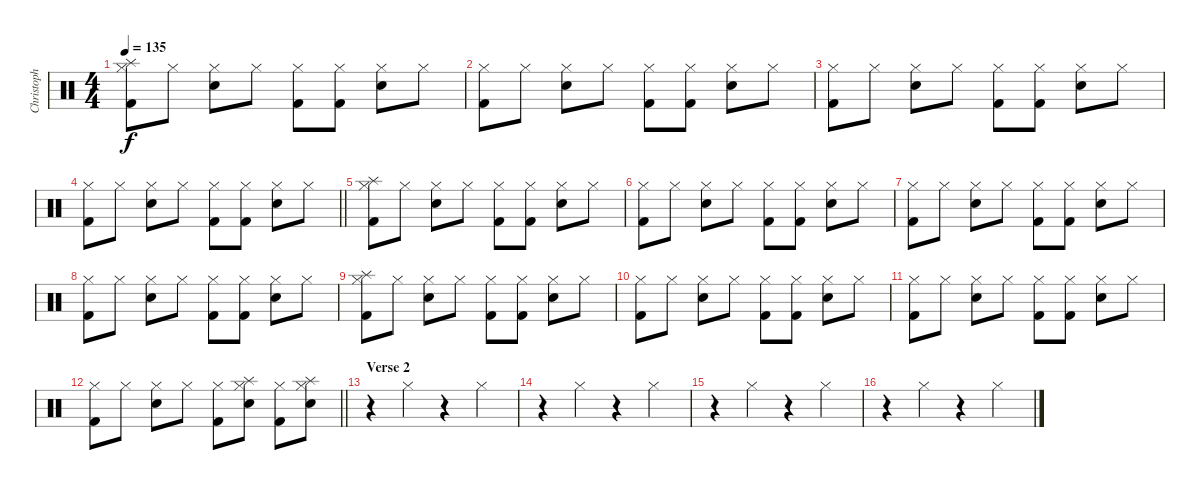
\track ("Christoph Schneider" "Christoph ") {instrument percussion}
\staff {score}
\articulation defaults
\ts (4 4)
\tempo 135
\clef neutral
\ks c
("Splash (hit)" "Hi-Hat (closed)" "Kick (hit) 2").8{dy f} "Hi-Hat (closed)".8 ("Hi-Hat (closed)" "Electric Snare (hit)").8 "Hi-Hat (closed)".8 ("Hi-Hat (closed)" "Kick (hit) 2").8 ("Hi-Hat (closed)" "Kick (hit) 2").8 ("Hi-Hat (closed)" "Electric Snare (hit)").8 "Hi-Hat (closed)".8 |
("Hi-Hat (closed)" "Kick (hit) 2").8 "Hi-Hat (closed)".8 ("Hi-Hat (closed)" "Electric Snare (hit)").8 "Hi-Hat (closed)".8 ("Hi-Hat (closed)" "Kick (hit) 2").8 ("Hi-Hat (closed)" "Kick (hit) 2").8 ("Hi-Hat (closed)" "Electric Snare (hit)").8 "Hi-Hat (closed)".8 |
("Hi-Hat (closed)" "Kick (hit) 2").8 "Hi-Hat (closed)".8 ("Hi-Hat (closed)" "Electric Snare (hit)").8 "Hi-Hat (closed)".8 ("Hi-Hat (closed)" "Kick (hit) 2").8 ("Hi-Hat (closed)" "Kick (hit) 2").8 ("Hi-Hat (closed)" "Electric Snare (hit)").8 "Hi-Hat (closed)".8 |
\barLineRight lightlight
("Hi-Hat (closed)" "Kick (hit) 2").8 "Hi-Hat (closed)".8 ("Hi-Hat (closed)" "Electric Snare (hit)").8 "Hi-Hat (closed)".8 ("Hi-Hat (closed)" "Kick (hit) 2").8 ("Hi-Hat (closed)" "Kick (hit) 2").8 ("Hi-Hat (closed)" "Electric Snare (hit)").8 "Hi-Hat (closed)".8 |
("Splash (hit)" "Hi-Hat (closed)" "Kick (hit) 2").8 "Hi-Hat (closed)".8 ("Hi-Hat (closed)" "Electric Snare (hit)").8 "Hi-Hat (closed)".8 ("Hi-Hat (closed)" "Kick (hit) 2").8 ("Hi-Hat (closed)" "Kick (hit) 2").8 ("Hi-Hat (closed)" "Electric Snare (hit)").8 "Hi-Hat (closed)".8 |
("Hi-Hat (closed)" "Kick (hit) 2").8 "Hi-Hat (closed)".8 ("Hi-Hat (closed)" "Electric Snare (hit)").8 "Hi-Hat (closed)".8 ("Hi-Hat (closed)" "Kick (hit) 2").8 ("Hi-Hat (closed)" "Kick (hit) 2").8 ("Hi-Hat (closed)" "Electric Snare (hit)").8 "Hi-Hat (closed)".8 |
("Hi-Hat (closed)" "Kick (hit) 2").8 "Hi-Hat (closed)".8 ("Hi-Hat (closed)" "Electric Snare (hit)").8 "Hi-Hat (closed)".8 ("Hi-Hat (closed)" "Kick (hit) 2").8 ("Hi-Hat (closed)" "Kick (hit) 2").8 ("Hi-Hat (closed)" "Electric Snare (hit)").8 "Hi-Hat (closed)".8 |
("Hi-Hat (closed)" "Kick (hit) 2").8 "Hi-Hat (closed)".8 ("Hi-Hat (closed)" "Electric Snare (hit)").8 "Hi-Hat (closed)".8 ("Hi-Hat (closed)" "Kick (hit) 2").8 ("Hi-Hat (closed)" "Kick (hit) 2").8 ("Hi-Hat (closed)" "Electric Snare (hit)").8 "Hi-Hat (closed)".8 |
("Splash (hit)" "Hi-Hat (closed)" "Kick (hit) 2").8 "Hi-Hat (closed)".8 ("Hi-Hat (closed)" "Electric Snare (hit)").8 "Hi-Hat (closed)".8 ("Hi-Hat (closed)" "Kick (hit) 2").8 ("Hi-Hat (closed)" "Kick (hit) 2").8 ("Hi-Hat (closed)" "Electric Snare (hit)").8 "Hi-Hat (closed)".8 |
("Hi-Hat (closed)" "Kick (hit) 2").8 "Hi-Hat (closed)".8 ("Hi-Hat (closed)" "Electric Snare (hit)").8 "Hi-Hat (closed)".8 ("Hi-Hat (closed)" "Kick (hit) 2").8 ("Hi-Hat (closed)" "Kick (hit) 2").8 ("Hi-Hat (closed)" "Electric Snare (hit)").8 "Hi-Hat (closed)".8 |
("Hi-Hat (closed)" "Kick (hit) 2").8 "Hi-Hat (closed)".8 ("Hi-Hat (closed)" "Electric Snare (hit)").8 "Hi-Hat (closed)".8 ("Hi-Hat (closed)" "Kick (hit) 2").8 ("Hi-Hat (closed)" "Kick (hit) 2").8 ("Hi-Hat (closed)" "Electric Snare (hit)").8 "Hi-Hat (closed)".8 |
\barLineRight lightlight
("Hi-Hat (closed)" "Kick (hit) 2").8 "Hi-Hat (closed)".8 ("Hi-Hat (closed)" "Electric Snare (hit)").8 "Hi-Hat (closed)".8 ("Hi-Hat (closed)" "Kick (hit) 2").8 ("Splash (hit)" "Hi-Hat (closed)" "Electric Snare (hit)").8 ("Hi-Hat (closed)" "Kick (hit) 2").8 ("Splash (hit)" "Hi-Hat (closed)" "Electric Snare (hit)").8 |
\section ("" "Verse 2")
r.4 "Hi-Hat (closed)".4 r.4 "Hi-Hat (closed)".4 |
r.4 "Hi-Hat (closed)".4 r.4 "Hi-Hat (closed)".4 |
r.4 "Hi-Hat (closed)".4 r.4 "Hi-Hat (closed)".4 |
r.4 "Hi-Hat (closed)".4 r.4 "Hi-Hat (closed)".4
